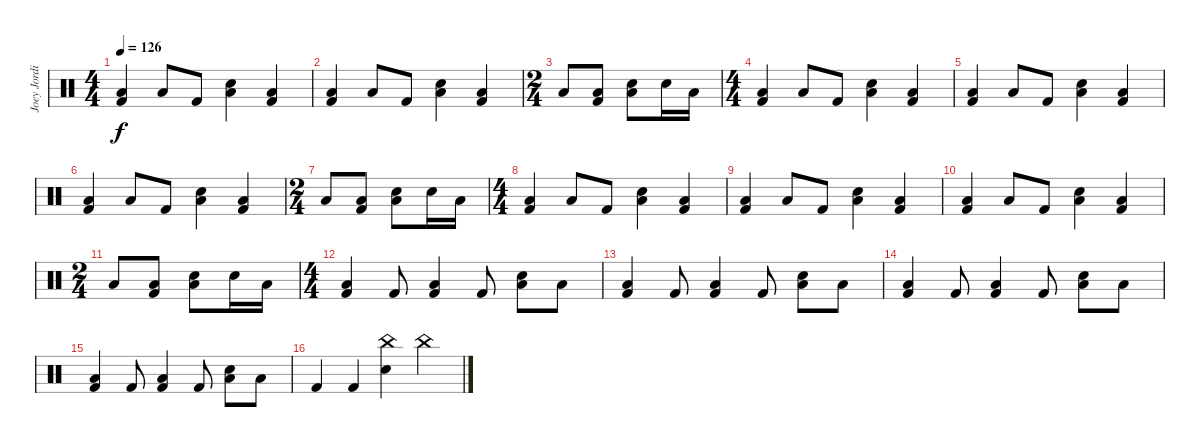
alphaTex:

\track ("Joey Jordison" "Joey Jordi") {instrument percussion}
\staff {score}
\articulation defaults
\ts (4 4)
\tempo 126
\clef neutral
\ks c
("Low Tom (hit)" "Kick (hit) 2").4{dy f} "Low Tom (hit)".8 "Kick (hit) 2".8 ("Low Tom (hit)" "Snare (hit) 2").4 ("Low Tom (hit)" "Kick (hit) 2").4 |
("Low Tom (hit)" "Kick (hit) 2").4 "Low Tom (hit)".8 "Kick (hit) 2".8 ("Low Tom (hit)" "Snare (hit) 2").4 ("Low Tom (hit)" "Kick (hit) 2").4 |
\ts (2 4)
"Low Tom (hit)".8 ("Low Tom (hit)" "Kick (hit) 2").8 ("Low Tom (hit)" "Snare (hit) 2").8 "Snare (hit) 2".16 "Low Tom (hit)".16 |
\ts (4 4)
("Low Tom (hit)" "Kick (hit) 2").4 "Low Tom (hit)".8 "Kick (hit) 2".8 ("Low Tom (hit)" "Electric Snare (hit)").4 ("Low Tom (hit)" "Kick (hit) 2").4 |
("Low Tom (hit)" "Kick (hit) 2").4 "Low Tom (hit)".8 "Kick (hit) 2".8 ("Low Tom (hit)" "Snare (hit) 2").4 ("Low Tom (hit)" "Kick (hit) 2").4 |
("Low Tom (hit)" "Kick (hit) 2").4 "Low Tom (hit)".8 "Kick (hit) 2".8 ("Low Tom (hit)" "Snare (hit) 2").4 ("Low Tom (hit)" "Kick (hit) 2").4 |
\ts (2 4)
"Low Tom (hit)".8 ("Low Tom (hit)" "Kick (hit) 2").8 ("Low Tom (hit)" "Snare (hit) 2").8 "Snare (hit) 2".16 "Low Tom (hit)".16 |
\ts (4 4)
("Low Tom (hit)" "Kick (hit) 2").4 "Low Tom (hit)".8 "Kick (hit) 2".8 ("Low Tom (hit)" "Electric Snare (hit)").4 ("Low Tom (hit)" "Kick (hit) 2").4 |
("Low Tom (hit)" "Kick (hit) 2").4 "Low Tom (hit)".8 "Kick (hit) 2".8 ("Low Tom (hit)" "Snare (hit) 2").4 ("Low Tom (hit)" "Kick (hit) 2").4 |
("Low Tom (hit)" "Kick (hit) 2").4 "Low Tom (hit)".8 "Kick (hit) 2".8 ("Low Tom (hit)" "Snare (hit) 2").4 ("Low Tom (hit)" "Kick (hit) 2").4 |
\ts (2 4)
"Low Tom (hit)".8 ("Low Tom (hit)" "Kick (hit) 2").8 ("Low Tom (hit)" "Snare (hit) 2").8 "Snare (hit) 2".16 "Low Tom (hit)".16 |
\ts (4 4)
("Low Tom (hit)" "Kick (hit) 2").4 "Kick (hit) 2".8 ("Low Tom (hit)" "Kick (hit) 2").4 "Kick (hit) 2".8 ("Low Tom (hit)" "Snare (hit) 2").8 "Low Tom (hit)".8 |
("Low Tom (hit)" "Kick (hit) 2").4 "Kick (hit) 2".8 ("Low Tom (hit)" "Kick (hit) 2").4 "Kick (hit) 2".8 ("Low Tom (hit)" "Snare (hit) 2").8 "Low Tom (hit)".8 |
("Low Tom (hit)" "Kick (hit) 2").4 "Kick (hit) 2".8 ("Low Tom (hit)" "Kick (hit) 2").4 "Kick (hit) 2".8 ("Low Tom (hit)" "Snare (hit) 2").8 "Low Tom (hit)".8 |
("Low Tom (hit)" "Kick (hit) 2").4 "Kick (hit) 2".8 ("Low Tom (hit)" "Kick (hit) 2").4 "Kick (hit) 2".8 ("Low Tom (hit)" "Snare (hit) 2").8 "Low Tom (hit)".8 |
"Kick (hit) 2".4 "Kick (hit) 2".4 ("China (hit)" "Snare (hit) 2").4 "China (hit)".4
